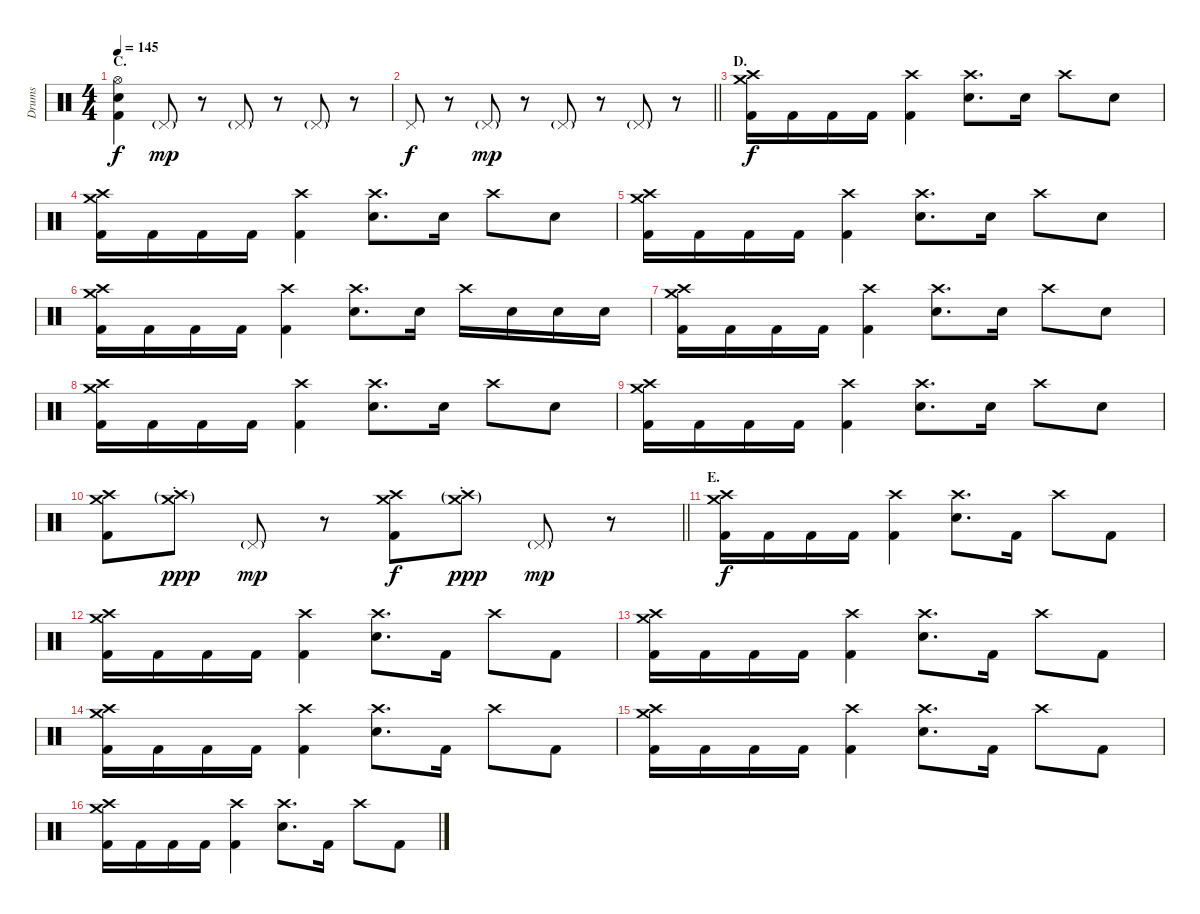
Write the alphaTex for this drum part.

\track ("Drums" "Drums") {instrument percussion}
\staff {score}
\articulation defaults
\ts (4 4)
\section ("" "C.")
\tempo 145
\clef neutral
\ks c
("Hi-Hat (open)" "Electric Snare (hit)" "Kick (hit) 2").4{dy f} "Pedal Hi-Hat (hit)"{g}.8{dy mp} r.8 "Pedal Hi-Hat (hit)"{g}.8 r.8 "Pedal Hi-Hat (hit)"{g}.8 r.8 |
\barLineRight lightlight "Pedal Hi-Hat (hit)".8{dy f}
r.8 "Pedal Hi-Hat (hit)"{g}.8{dy mp} r.8 "Pedal Hi-Hat (hit)"{g}.8 r.8 "Pedal Hi-Hat (hit)"{g}.8 r.8 |
\section ("" "D.")
("Crash medium (hit)" "Crash high (hit)" "Kick (hit) 2").16{dy f} "Kick (hit) 2".16 "Kick (hit) 2".16 "Kick (hit) 2".16 ("Crash high (hit)" "Kick (hit) 2").4 ("Crash high (hit)" "Electric Snare (hit)").8{d} "Electric Snare (hit)".16 "Crash high (hit)".8 "Electric Snare (hit)".8 |
("Crash medium (hit)" "Crash high (hit)" "Kick (hit) 2").16 "Kick (hit) 2".16 "Kick (hit) 2".16 "Kick (hit) 2".16 ("Crash high (hit)" "Kick (hit) 2").4 ("Crash high (hit)" "Electric Snare (hit)").8{d} "Electric Snare (hit)".16 "Crash high (hit)".8 "Electric Snare (hit)".8 |
("Crash medium (hit)" "Crash high (hit)" "Kick (hit) 2").16 "Kick (hit) 2".16 "Kick (hit) 2".16 "Kick (hit) 2".16 ("Crash high (hit)" "Kick (hit) 2").4 ("Crash high (hit)" "Electric Snare (hit)").8{d} "Electric Snare (hit)".16 "Crash high (hit)".8 "Electric Snare (hit)".8 |
("Crash medium (hit)" "Crash high (hit)" "Kick (hit) 2").16 "Kick (hit) 2".16 "Kick (hit) 2".16 "Kick (hit) 2".16 ("Crash high (hit)" "Kick (hit) 2").4 ("Crash high (hit)" "Electric Snare (hit)").8{d} "Electric Snare (hit)".16 "Crash high (hit)".16 "Electric Snare (hit)".16 "Electric Snare (hit)".16 "Electric Snare (hit)".16 |
("Crash medium (hit)" "Crash high (hit)" "Kick (hit) 2").16 "Kick (hit) 2".16 "Kick (hit) 2".16 "Kick (hit) 2".16 ("Crash high (hit)" "Kick (hit) 2").4 ("Crash high (hit)" "Electric Snare (hit)").8{d} "Electric Snare (hit)".16 "Crash high (hit)".8 "Electric Snare (hit)".8 |
("Crash medium (hit)" "Crash high (hit)" "Kick (hit) 2").16 "Kick (hit) 2".16 "Kick (hit) 2".16 "Kick (hit) 2".16 ("Crash high (hit)" "Kick (hit) 2").4 ("Crash high (hit)" "Electric Snare (hit)").8{d} "Electric Snare (hit)".16 "Crash high (hit)".8 "Electric Snare (hit)".8 |
("Crash medium (hit)" "Crash high (hit)" "Kick (hit) 2").16 "Kick (hit) 2".16 "Kick (hit) 2".16 "Kick (hit) 2".16 ("Crash high (hit)" "Kick (hit) 2").4 ("Crash high (hit)" "Electric Snare (hit)").8{d} "Electric Snare (hit)".16 "Crash high (hit)".8 "Electric Snare (hit)".8 |
\barLineRight lightlight
("Crash medium (hit)" "Crash high (hit)" "Kick (hit) 2").8 ("Crash medium (hit)"{g st} "Crash high (hit)"{g st}).8{dy ppp} "Pedal Hi-Hat (hit)"{g}.8{dy mp} r.8 ("Crash medium (hit)" "Crash high (hit)" "Kick (hit) 2").8{dy f} ("Crash medium (hit)"{g st} "Crash high (hit)"{g st}).8{dy ppp} "Pedal Hi-Hat (hit)"{g}.8{dy mp} r.8 |
\section ("" "E.")
("Crash medium (hit)" "Crash high (hit)" "Kick (hit) 2").16{dy f} "Kick (hit) 2".16 "Kick (hit) 2".16 "Kick (hit) 2".16 ("Crash high (hit)" "Kick (hit) 2").4 ("Crash high (hit)" "Electric Snare (hit)").8{d} "Kick (hit) 2".16 "Crash high (hit)".8 "Kick (hit) 2".8 |
("Crash medium (hit)" "Crash high (hit)" "Kick (hit) 2").16 "Kick (hit) 2".16 "Kick (hit) 2".16 "Kick (hit) 2".16 ("Crash high (hit)" "Kick (hit) 2").4 ("Crash high (hit)" "Electric Snare (hit)").8{d} "Kick (hit) 2".16 "Crash high (hit)".8 "Kick (hit) 2".8 |
("Crash medium (hit)" "Crash high (hit)" "Kick (hit) 2").16 "Kick (hit) 2".16 "Kick (hit) 2".16 "Kick (hit) 2".16 ("Crash high (hit)" "Kick (hit) 2").4 ("Crash high (hit)" "Electric Snare (hit)").8{d} "Kick (hit) 2".16 "Crash high (hit)".8 "Kick (hit) 2".8 |
("Crash medium (hit)" "Crash high (hit)" "Kick (hit) 2").16 "Kick (hit) 2".16 "Kick (hit) 2".16 "Kick (hit) 2".16 ("Crash high (hit)" "Kick (hit) 2").4 ("Crash high (hit)" "Electric Snare (hit)").8{d} "Kick (hit) 2".16 "Crash high (hit)".8 "Kick (hit) 2".8 |
("Crash medium (hit)" "Crash high (hit)" "Kick (hit) 2").16 "Kick (hit) 2".16 "Kick (hit) 2".16 "Kick (hit) 2".16 ("Crash high (hit)" "Kick (hit) 2").4 ("Crash high (hit)" "Electric Snare (hit)").8{d} "Kick (hit) 2".16 "Crash high (hit)".8 "Kick (hit) 2".8 |
("Crash medium (hit)" "Crash high (hit)" "Kick (hit) 2").16 "Kick (hit) 2".16 "Kick (hit) 2".16 "Kick (hit) 2".16 ("Crash high (hit)" "Kick (hit) 2").4 ("Crash high (hit)" "Electric Snare (hit)").8{d} "Kick (hit) 2".16 "Crash high (hit)".8 "Kick (hit) 2".8
